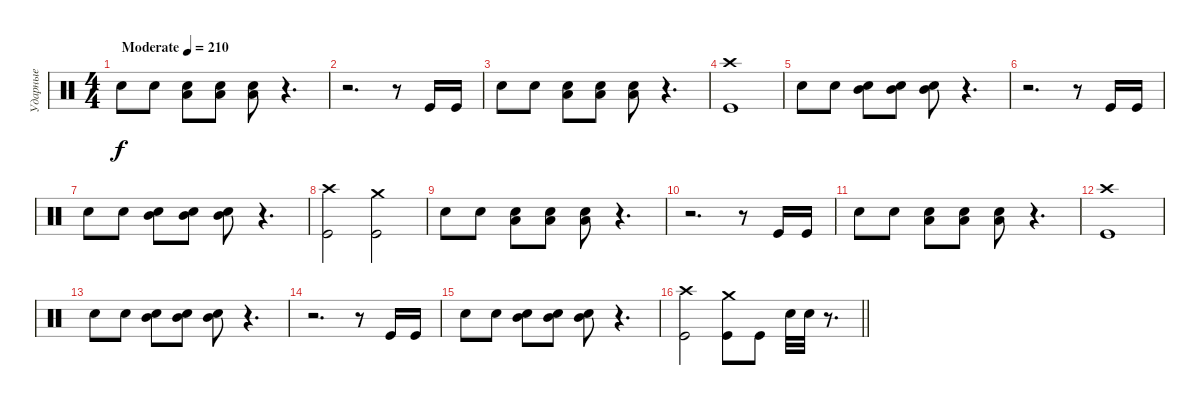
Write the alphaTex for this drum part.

\track ("Ударные" "Ударные") {instrument percussion}
\staff {score}
\articulation defaults
\ts (4 4)
\tempo (210 "Moderate")
\clef neutral
\ks c "Snare (hit) 2".8{dy f} "Snare (hit) 2".8
("Snare (hit) 2" "Low Tom (hit)").8 ("Snare (hit) 2" "Low Tom (hit)").8 ("Snare (hit) 2" "Low Tom (hit)").8 r.4{d} |
r.2{d} r.8 "Kick (hit)".16 "Kick (hit)".16 |
"Snare (hit) 2".8 "Snare (hit) 2".8 ("Snare (hit) 2" "Low Tom (hit)").8 ("Snare (hit) 2" "Low Tom (hit)").8 ("Snare (hit) 2" "Low Tom (hit)").8 r.4{d} |
("Crash high (hit)" "Kick (hit)").1 |
"Snare (hit) 2".8 "Snare (hit) 2".8 ("Snare (hit) 2" "Mid Tom (hit)").8 ("Snare (hit) 2" "Mid Tom (hit)").8 ("Snare (hit) 2" "Mid Tom (hit)").8 r.4{d} |
r.2{d} r.8 "Kick (hit)".16 "Kick (hit)".16 |
"Snare (hit) 2".8 "Snare (hit) 2".8 ("Snare (hit) 2" "Mid Tom (hit)").8 ("Snare (hit) 2" "Mid Tom (hit)").8 ("Snare (hit) 2" "Mid Tom (hit)").8 r.4{d} |
("Crash high (hit)" "Kick (hit)").2 ("Crash medium (hit)" "Kick (hit)").2 |
"Snare (hit) 2".8 "Snare (hit) 2".8 ("Snare (hit) 2" "Low Tom (hit)").8 ("Snare (hit) 2" "Low Tom (hit)").8 ("Snare (hit) 2" "Low Tom (hit)").8 r.4{d} |
r.2{d} r.8 "Kick (hit)".16 "Kick (hit)".16 |
"Snare (hit) 2".8 "Snare (hit) 2".8 ("Snare (hit) 2" "Low Tom (hit)").8 ("Snare (hit) 2" "Low Tom (hit)").8 ("Snare (hit) 2" "Low Tom (hit)").8 r.4{d} |
("Crash high (hit)" "Kick (hit)").1 |
"Snare (hit) 2".8 "Snare (hit) 2".8 ("Snare (hit) 2" "Mid Tom (hit)").8 ("Snare (hit) 2" "Mid Tom (hit)").8 ("Snare (hit) 2" "Mid Tom (hit)").8 r.4{d} |
r.2{d} r.8 "Kick (hit)".16 "Kick (hit)".16 |
"Snare (hit) 2".8 "Snare (hit) 2".8 ("Snare (hit) 2" "Mid Tom (hit)").8 ("Snare (hit) 2" "Mid Tom (hit)").8 ("Snare (hit) 2" "Mid Tom (hit)").8 r.4{d} |
\barLineRight lightlight
("Crash high (hit)" "Kick (hit)").2 ("Crash medium (hit)" "Kick (hit)").8 "Kick (hit)".8 "Snare (hit) 2".32 "Snare (hit) 2".32 r.8{d}
